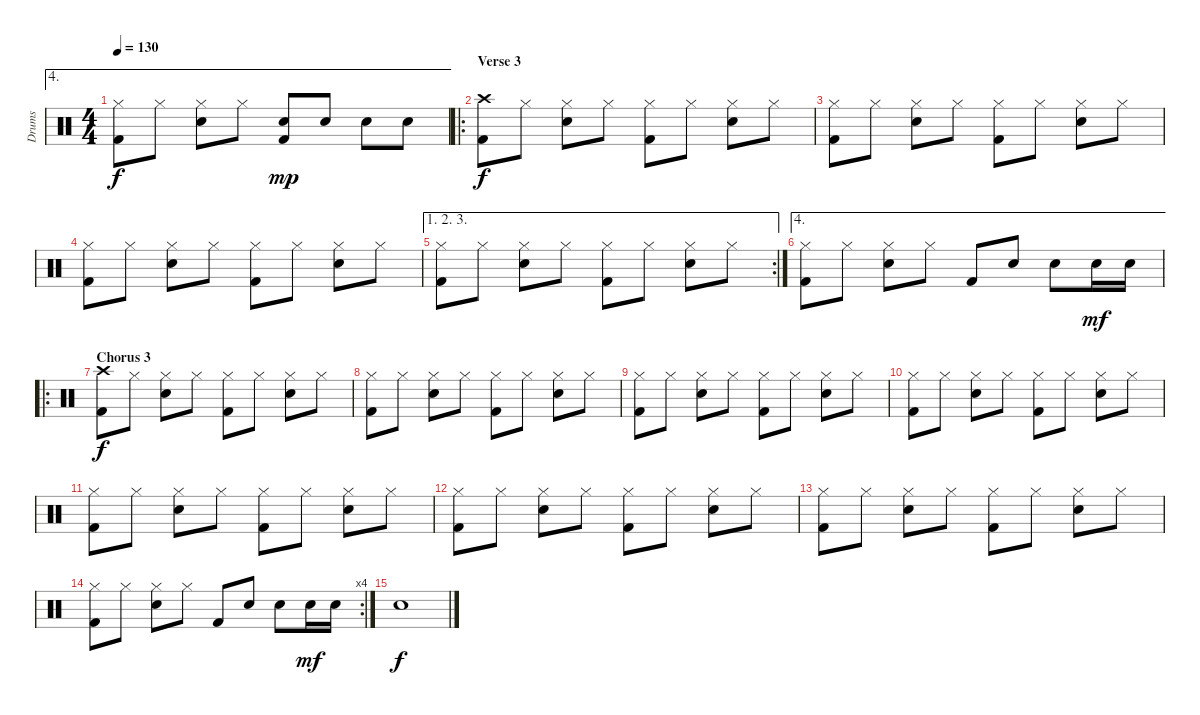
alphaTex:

\track ("Drums" "Drums") {instrument percussion}
\staff {score}
\articulation defaults
\ae 4
\ts (4 4)
\tempo 130
\clef neutral
\ks c
("Hi-Hat (closed)" "Kick (hit) 2").8{dy f} "Hi-Hat (closed)".8 ("Hi-Hat (closed)" "Snare (hit) 2").8 "Hi-Hat (closed)".8 ("Snare (hit) 2" "Kick (hit) 2").8{dy mp} "Snare (hit) 2".8 "Snare (hit) 2".8 "Snare (hit) 2".8 |
\ro
\section ("" "Verse 3")
("Crash high (hit)" "Kick (hit) 2").8{dy f} "Hi-Hat (closed)".8 ("Hi-Hat (closed)" "Snare (hit) 2").8 "Hi-Hat (closed)".8 ("Hi-Hat (closed)" "Kick (hit) 2").8 "Hi-Hat (closed)".8 ("Hi-Hat (closed)" "Snare (hit) 2").8 "Hi-Hat (closed)".8 |
("Hi-Hat (closed)" "Kick (hit) 2").8 "Hi-Hat (closed)".8 ("Hi-Hat (closed)" "Snare (hit) 2").8 "Hi-Hat (closed)".8 ("Hi-Hat (closed)" "Kick (hit) 2").8 "Hi-Hat (closed)".8 ("Hi-Hat (closed)" "Snare (hit) 2").8 "Hi-Hat (closed)".8 |
("Hi-Hat (closed)" "Kick (hit) 2").8 "Hi-Hat (closed)".8 ("Hi-Hat (closed)" "Snare (hit) 2").8 "Hi-Hat (closed)".8 ("Hi-Hat (closed)" "Kick (hit) 2").8 "Hi-Hat (closed)".8 ("Hi-Hat (closed)" "Snare (hit) 2").8 "Hi-Hat (closed)".8 |
\ae (1 2 3)
\rc 2
("Hi-Hat (closed)" "Kick (hit) 2").8 "Hi-Hat (closed)".8 ("Hi-Hat (closed)" "Snare (hit) 2").8 "Hi-Hat (closed)".8 ("Hi-Hat (closed)" "Kick (hit) 2").8 "Hi-Hat (closed)".8 ("Hi-Hat (closed)" "Snare (hit) 2").8 "Hi-Hat (closed)".8 |
\ae 4
("Hi-Hat (closed)" "Kick (hit) 2").8 "Hi-Hat (closed)".8 ("Hi-Hat (closed)" "Snare (hit) 2").8 "Hi-Hat (closed)".8 "Kick (hit) 2".8 "Snare (hit) 2".8 "Snare (hit) 2".8 "Snare (hit) 2".16{dy mf} "Snare (hit) 2".16 |
\ro
\section ("" "Chorus 3")
("Crash high (hit)" "Kick (hit) 2").8{dy f} "Hi-Hat (closed)".8 ("Hi-Hat (closed)" "Snare (hit) 2").8 "Hi-Hat (closed)".8 ("Hi-Hat (closed)" "Kick (hit) 2").8 "Hi-Hat (closed)".8 ("Hi-Hat (closed)" "Snare (hit) 2").8 "Hi-Hat (closed)".8 |
("Hi-Hat (closed)" "Kick (hit) 2").8 "Hi-Hat (closed)".8 ("Hi-Hat (closed)" "Snare (hit) 2").8 "Hi-Hat (closed)".8 ("Hi-Hat (closed)" "Kick (hit) 2").8 "Hi-Hat (closed)".8 ("Hi-Hat (closed)" "Snare (hit) 2").8 "Hi-Hat (closed)".8 |
("Hi-Hat (closed)" "Kick (hit) 2").8 "Hi-Hat (closed)".8 ("Hi-Hat (closed)" "Snare (hit) 2").8 "Hi-Hat (closed)".8 ("Hi-Hat (closed)" "Kick (hit) 2").8 "Hi-Hat (closed)".8 ("Hi-Hat (closed)" "Snare (hit) 2").8 "Hi-Hat (closed)".8 |
("Hi-Hat (closed)" "Kick (hit) 2").8 "Hi-Hat (closed)".8 ("Hi-Hat (closed)" "Snare (hit) 2").8 "Hi-Hat (closed)".8 ("Hi-Hat (closed)" "Kick (hit) 2").8 "Hi-Hat (closed)".8 ("Hi-Hat (closed)" "Snare (hit) 2").8 "Hi-Hat (closed)".8 |
("Hi-Hat (closed)" "Kick (hit) 2").8 "Hi-Hat (closed)".8 ("Hi-Hat (closed)" "Snare (hit) 2").8 "Hi-Hat (closed)".8 ("Hi-Hat (closed)" "Kick (hit) 2").8 "Hi-Hat (closed)".8 ("Hi-Hat (closed)" "Snare (hit) 2").8 "Hi-Hat (closed)".8 |
("Hi-Hat (closed)" "Kick (hit) 2").8 "Hi-Hat (closed)".8 ("Hi-Hat (closed)" "Snare (hit) 2").8 "Hi-Hat (closed)".8 ("Hi-Hat (closed)" "Kick (hit) 2").8 "Hi-Hat (closed)".8 ("Hi-Hat (closed)" "Snare (hit) 2").8 "Hi-Hat (closed)".8 |
("Hi-Hat (closed)" "Kick (hit) 2").8 "Hi-Hat (closed)".8 ("Hi-Hat (closed)" "Snare (hit) 2").8 "Hi-Hat (closed)".8 ("Hi-Hat (closed)" "Kick (hit) 2").8 "Hi-Hat (closed)".8 ("Hi-Hat (closed)" "Snare (hit) 2").8 "Hi-Hat (closed)".8 |
\rc 4
("Hi-Hat (closed)" "Kick (hit) 2").8 "Hi-Hat (closed)".8 ("Hi-Hat (closed)" "Snare (hit) 2").8 "Hi-Hat (closed)".8 "Kick (hit) 2".8 "Snare (hit) 2".8 "Snare (hit) 2".8 "Snare (hit) 2".16{dy mf} "Snare (hit) 2".16 |
"Snare (hit) 2".1{dy f}
